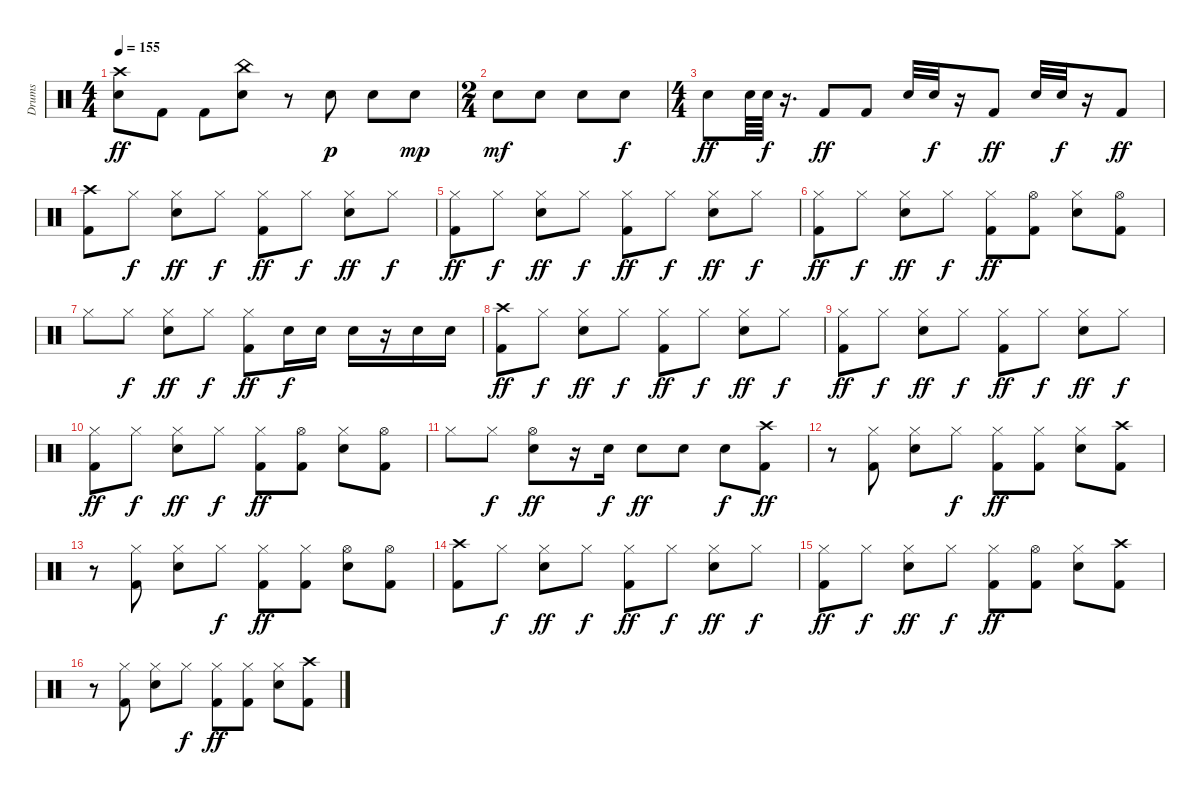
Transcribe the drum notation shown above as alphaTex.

\track ("Drums" "Drums") {instrument percussion}
\staff {score}
\articulation defaults
\ts (4 4)
\tempo 155
\clef neutral
\ks c
("Crash high (hit)" "Snare (hit) 2").8{dy ff} "Kick (hit) 2".8 "Kick (hit) 2".8 ("China (hit)" "Snare (hit) 2").8 r.8 "Snare (hit) 2".8{dy p} "Snare (hit) 2".8 "Snare (hit) 2".8{dy mp} |
\ts (2 4)
"Snare (hit) 2".8{dy mf} "Snare (hit) 2".8 "Snare (hit) 2".8 "Snare (hit) 2".8{dy f} |
\ts (4 4)
"Snare (hit) 2".8{dy ff} "Snare (hit) 2".64 "Snare (hit) 2".64{dy f} r.16{d} "Kick (hit) 2".8{dy ff} "Kick (hit) 2".8 "Snare (hit) 2".32 "Snare (hit) 2".32{dy f} r.16 "Kick (hit) 2".8{dy ff} "Snare (hit) 2".32 "Snare (hit) 2".32{dy f} r.16 "Kick (hit) 2".8{dy ff} |
("Crash high (hit)" "Kick (hit) 2").8 "Hi-Hat (closed)".8{dy f} ("Hi-Hat (closed)" "Snare (hit) 2").8{dy ff} "Hi-Hat (closed)".8{dy f} ("Hi-Hat (closed)" "Kick (hit) 2").8{dy ff} "Hi-Hat (closed)".8{dy f} ("Hi-Hat (closed)" "Snare (hit) 2").8{dy ff} "Hi-Hat (closed)".8{dy f} |
("Hi-Hat (closed)" "Kick (hit) 2").8{dy ff} "Hi-Hat (closed)".8{dy f} ("Hi-Hat (closed)" "Snare (hit) 2").8{dy ff} "Hi-Hat (closed)".8{dy f} ("Hi-Hat (closed)" "Kick (hit) 2").8{dy ff} "Hi-Hat (closed)".8{dy f} ("Hi-Hat (closed)" "Snare (hit) 2").8{dy ff} "Hi-Hat (closed)".8{dy f} |
("Hi-Hat (closed)" "Kick (hit) 2").8{dy ff} "Hi-Hat (closed)".8{dy f} ("Hi-Hat (closed)" "Snare (hit) 2").8{dy ff} "Hi-Hat (closed)".8{dy f} ("Hi-Hat (closed)" "Kick (hit) 2").8{dy ff} ("Hi-Hat (open)" "Kick (hit) 2").8 ("Hi-Hat (closed)" "Snare (hit) 2").8 ("Hi-Hat (open)" "Kick (hit) 2").8 |
"Hi-Hat (closed)".8 "Hi-Hat (closed)".8{dy f} ("Hi-Hat (closed)" "Snare (hit) 2").8{dy ff} "Hi-Hat (closed)".8{dy f} ("Hi-Hat (closed)" "Kick (hit) 2").8{dy ff} "Snare (hit) 2".16{dy f} "Snare (hit) 2".16 "Snare (hit) 2".16 r.16 "Snare (hit) 2".16 "Snare (hit) 2".16 |
("Crash high (hit)" "Kick (hit) 2").8{dy ff} "Hi-Hat (closed)".8{dy f} ("Hi-Hat (closed)" "Snare (hit) 2").8{dy ff} "Hi-Hat (closed)".8{dy f} ("Hi-Hat (closed)" "Kick (hit) 2").8{dy ff} "Hi-Hat (closed)".8{dy f} ("Hi-Hat (closed)" "Snare (hit) 2").8{dy ff} "Hi-Hat (closed)".8{dy f} |
("Hi-Hat (closed)" "Kick (hit) 2").8{dy ff} "Hi-Hat (closed)".8{dy f} ("Hi-Hat (closed)" "Snare (hit) 2").8{dy ff} "Hi-Hat (closed)".8{dy f} ("Hi-Hat (closed)" "Kick (hit) 2").8{dy ff} "Hi-Hat (closed)".8{dy f} ("Hi-Hat (closed)" "Snare (hit) 2").8{dy ff} "Hi-Hat (closed)".8{dy f} |
("Hi-Hat (closed)" "Kick (hit) 2").8{dy ff} "Hi-Hat (closed)".8{dy f} ("Hi-Hat (closed)" "Snare (hit) 2").8{dy ff} "Hi-Hat (closed)".8{dy f} ("Hi-Hat (closed)" "Kick (hit) 2").8{dy ff} ("Hi-Hat (open)" "Kick (hit) 2").8 ("Hi-Hat (closed)" "Snare (hit) 2").8 ("Hi-Hat (open)" "Kick (hit) 2").8 |
"Hi-Hat (closed)".8 "Hi-Hat (closed)".8{dy f} ("Hi-Hat (open)" "Snare (hit) 2").8{dy ff} r.16 "Snare (hit) 2".16{dy f} "Snare (hit) 2".8{dy ff} "Snare (hit) 2".8 "Snare (hit) 2".8{dy f} ("Crash high (hit)" "Kick (hit) 2").8{dy ff} |
r.8 ("Hi-Hat (closed)" "Kick (hit) 2").8 ("Hi-Hat (closed)" "Snare (hit) 2").8 "Hi-Hat (closed)".8{dy f} ("Hi-Hat (closed)" "Kick (hit) 2").8{dy ff} ("Hi-Hat (closed)" "Kick (hit) 2").8 ("Hi-Hat (closed)" "Snare (hit) 2").8 ("Crash high (hit)" "Kick (hit) 2").8 |
r.8 ("Hi-Hat (closed)" "Kick (hit) 2").8 ("Hi-Hat (closed)" "Snare (hit) 2").8 "Hi-Hat (closed)".8{dy f} ("Hi-Hat (closed)" "Kick (hit) 2").8{dy ff} ("Hi-Hat (closed)" "Kick (hit) 2").8 ("Hi-Hat (open)" "Snare (hit) 2").8 ("Hi-Hat (open)" "Kick (hit) 2").8 |
("Crash high (hit)" "Kick (hit) 2").8 "Hi-Hat (closed)".8{dy f} ("Hi-Hat (closed)" "Snare (hit) 2").8{dy ff} "Hi-Hat (closed)".8{dy f} ("Hi-Hat (closed)" "Kick (hit) 2").8{dy ff} "Hi-Hat (closed)".8{dy f} ("Hi-Hat (closed)" "Snare (hit) 2").8{dy ff} "Hi-Hat (closed)".8{dy f} |
("Hi-Hat (closed)" "Kick (hit) 2").8{dy ff} "Hi-Hat (closed)".8{dy f} ("Hi-Hat (closed)" "Snare (hit) 2").8{dy ff} "Hi-Hat (closed)".8{dy f} ("Hi-Hat (closed)" "Kick (hit) 2").8{dy ff} ("Hi-Hat (open)" "Kick (hit) 2").8 ("Hi-Hat (closed)" "Snare (hit) 2").8 ("Crash high (hit)" "Kick (hit) 2").8 |
r.8 ("Hi-Hat (closed)" "Kick (hit) 2").8 ("Hi-Hat (closed)" "Snare (hit) 2").8 "Hi-Hat (closed)".8{dy f} ("Hi-Hat (closed)" "Kick (hit) 2").8{dy ff} ("Hi-Hat (closed)" "Kick (hit) 2").8 ("Hi-Hat (closed)" "Snare (hit) 2").8 ("Crash high (hit)" "Kick (hit) 2").8
